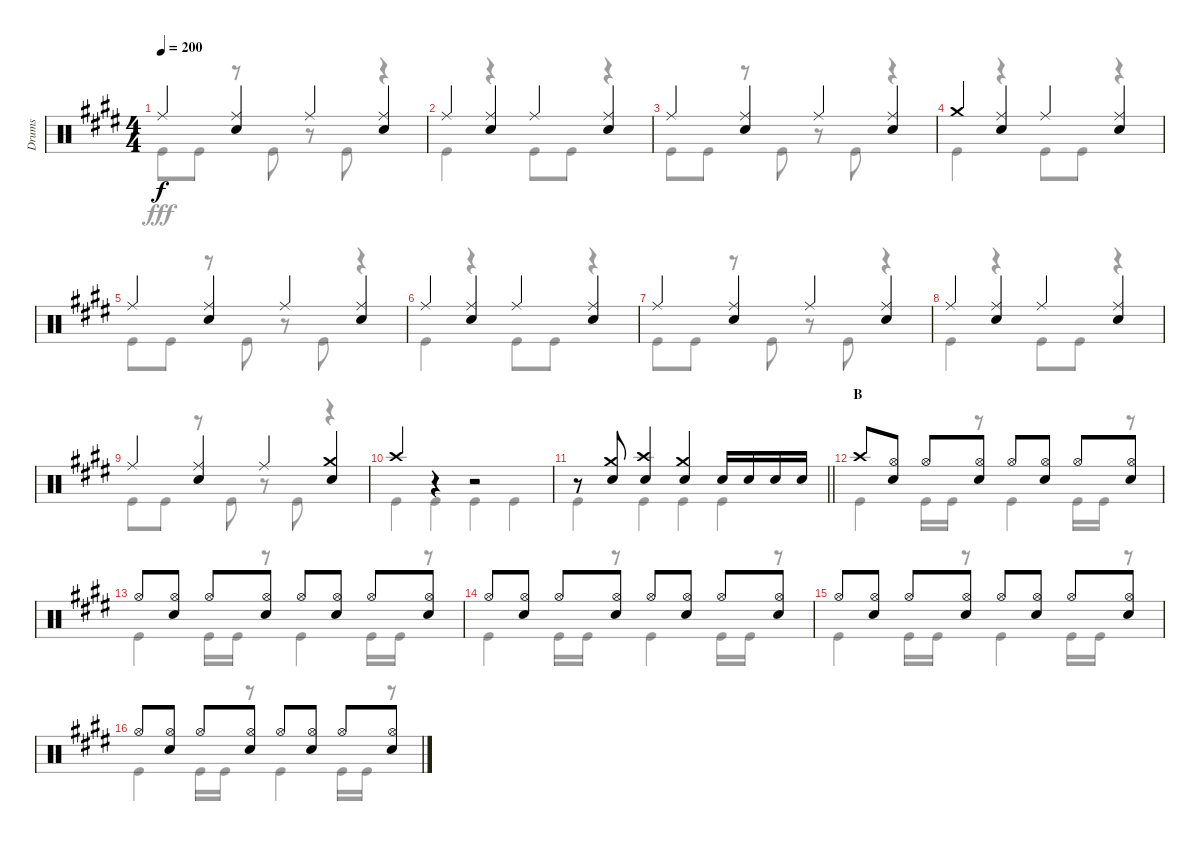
\track ("Drums" "Drums") {instrument percussion}
\staff {score}
\articulation defaults
\voice
\ts (4 4)
\tempo 200
\clef neutral
\ks e "Ride (middle)".4{dy f}
("Ride (middle)" "Snare (hit) 2").4 "Ride (middle)".4 ("Ride (middle)" "Snare (hit) 2").4 |
"Ride (middle)".4 ("Ride (middle)" "Snare (hit) 2").4 "Ride (middle)".4 ("Ride (middle)" "Snare (hit) 2").4 |
"Ride (middle)".4 ("Ride (middle)" "Snare (hit) 2").4 "Ride (middle)".4 ("Ride (middle)" "Snare (hit) 2").4 |
"Crash medium (hit)".4 ("Ride (middle)" "Snare (hit) 2").4 "Ride (middle)".4 ("Ride (middle)" "Snare (hit) 2").4 |
"Ride (middle)".4 ("Ride (middle)" "Snare (hit) 2").4 "Ride (middle)".4 ("Ride (middle)" "Snare (hit) 2").4 |
"Ride (middle)".4 ("Ride (middle)" "Snare (hit) 2").4 "Ride (middle)".4 ("Ride (middle)" "Snare (hit) 2").4 |
"Ride (middle)".4 ("Ride (middle)" "Snare (hit) 2").4 "Ride (middle)".4 ("Ride (middle)" "Snare (hit) 2").4 |
"Ride (middle)".4 ("Ride (middle)" "Snare (hit) 2").4 "Ride (middle)".4 ("Ride (middle)" "Snare (hit) 2").4 |
"Ride (middle)".4 ("Ride (middle)" "Snare (hit) 2").4 "Ride (middle)".4 ("Crash medium (hit)" "Snare (hit) 2").4 |
"Crash high (hit)".4 r.4 r.2 |
\barLineRight lightlight
r.8 ("Crash medium (hit)" "Snare (hit) 2").8 ("Crash high (hit)" "Snare (hit) 2").4 ("Crash medium (hit)" "Snare (hit) 2").4 "Snare (hit) 2".16 "Snare (hit) 2".16 "Snare (hit) 2".16 "Snare (hit) 2".16 |
\section ("" "B")
"Crash high (hit)".8 ("Hi-Hat (open)" "Snare (hit) 2").8 "Hi-Hat (open)".8 ("Hi-Hat (open)" "Snare (hit) 2").8 "Hi-Hat (open)".8 ("Hi-Hat (open)" "Snare (hit) 2").8 "Hi-Hat (open)".8 ("Hi-Hat (open)" "Snare (hit) 2").8 |
"Hi-Hat (open)".8 ("Hi-Hat (open)" "Snare (hit) 2").8 "Hi-Hat (open)".8 ("Hi-Hat (open)" "Snare (hit) 2").8 "Hi-Hat (open)".8 ("Hi-Hat (open)" "Snare (hit) 2").8 "Hi-Hat (open)".8 ("Hi-Hat (open)" "Snare (hit) 2").8 |
"Hi-Hat (open)".8 ("Hi-Hat (open)" "Snare (hit) 2").8 "Hi-Hat (open)".8 ("Hi-Hat (open)" "Snare (hit) 2").8 "Hi-Hat (open)".8 ("Hi-Hat (open)" "Snare (hit) 2").8 "Hi-Hat (open)".8 ("Hi-Hat (open)" "Snare (hit) 2").8 |
"Hi-Hat (open)".8 ("Hi-Hat (open)" "Snare (hit) 2").8 "Hi-Hat (open)".8 ("Hi-Hat (open)" "Snare (hit) 2").8 "Hi-Hat (open)".8 ("Hi-Hat (open)" "Snare (hit) 2").8 "Hi-Hat (open)".8 ("Hi-Hat (open)" "Snare (hit) 2").8 |
"Hi-Hat (open)".8 ("Hi-Hat (open)" "Snare (hit) 2").8 "Hi-Hat (open)".8 ("Hi-Hat (open)" "Snare (hit) 2").8 "Hi-Hat (open)".8 ("Hi-Hat (open)" "Snare (hit) 2").8 "Hi-Hat (open)".8 ("Hi-Hat (open)" "Snare (hit) 2").8
\voice
\clef neutral
\ottava regular
\simile none
\ks e "Kick (hit)".8{dy fff} "Kick (hit)".8
r.8 "Kick (hit)".8 r.8 "Kick (hit)".8 r.4 |
"Kick (hit)".4 r.4 "Kick (hit)".8 "Kick (hit)".8 r.4 |
"Kick (hit)".8 "Kick (hit)".8 r.8 "Kick (hit)".8 r.8 "Kick (hit)".8 r.4 |
"Kick (hit)".4 r.4 "Kick (hit)".8 "Kick (hit)".8 r.4 |
"Kick (hit)".8 "Kick (hit)".8 r.8 "Kick (hit)".8 r.8 "Kick (hit)".8 r.4 |
"Kick (hit)".4 r.4 "Kick (hit)".8 "Kick (hit)".8 r.4 |
"Kick (hit)".8 "Kick (hit)".8 r.8 "Kick (hit)".8 r.8 "Kick (hit)".8 r.4 |
"Kick (hit)".4 r.4 "Kick (hit)".8 "Kick (hit)".8 r.4 |
"Kick (hit)".8 "Kick (hit)".8 r.8 "Kick (hit)".8 r.8 "Kick (hit)".8 r.4 |
"Kick (hit)".4 "Kick (hit)".4 "Kick (hit)".4 "Kick (hit)".4 |
\barLineRight lightlight "Kick (hit)".4 "Kick (hit)".4 "Kick (hit)".4 "Kick (hit)".4
|
"Kick (hit)".4 "Kick (hit)".16 "Kick (hit)".16 r.8 "Kick (hit)".4 "Kick (hit)".16 "Kick (hit)".16 r.8 |
"Kick (hit)".4 "Kick (hit)".16 "Kick (hit)".16 r.8 "Kick (hit)".4 "Kick (hit)".16 "Kick (hit)".16 r.8 |
"Kick (hit)".4 "Kick (hit)".16 "Kick (hit)".16 r.8 "Kick (hit)".4 "Kick (hit)".16 "Kick (hit)".16 r.8 |
"Kick (hit)".4 "Kick (hit)".16 "Kick (hit)".16 r.8 "Kick (hit)".4 "Kick (hit)".16 "Kick (hit)".16 r.8 |
"Kick (hit)".4 "Kick (hit)".16 "Kick (hit)".16 r.8 "Kick (hit)".4 "Kick (hit)".16 "Kick (hit)".16 r.8
